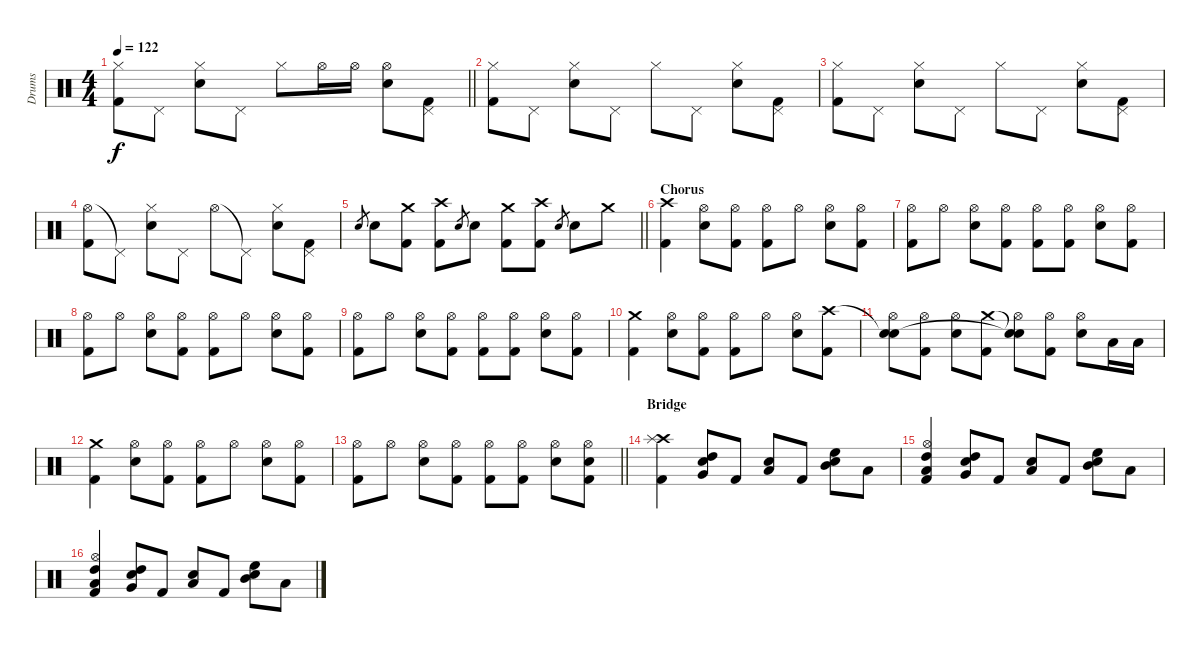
\track ("Drums" "Drums") {instrument percussion}
\staff {score}
\articulation defaults
\ts (4 4)
\tempo 122
\clef neutral
\barLineRight lightlight
\ks c
("Hi-Hat (closed)" "Kick (hit) 2").8{dy f} "Pedal Hi-Hat (hit)".8 ("Snare (hit) 2" "Hi-Hat (closed)").8 "Pedal Hi-Hat (hit)".8 "Hi-Hat (closed)".8 "Hi-Hat (open)".16 "Hi-Hat (open)".16 ("Snare (hit) 2" "Hi-Hat (open)").8 ("Pedal Hi-Hat (hit)" "Kick (hit) 2").8 |
("Hi-Hat (closed)" "Kick (hit) 2").8 "Pedal Hi-Hat (hit)".8 ("Snare (hit) 2" "Hi-Hat (closed)").8 "Pedal Hi-Hat (hit)".8 "Hi-Hat (closed)".8 "Pedal Hi-Hat (hit)".8 ("Snare (hit) 2" "Hi-Hat (closed)").8 ("Pedal Hi-Hat (hit)" "Kick (hit) 2").8 |
("Hi-Hat (closed)" "Kick (hit) 2").8 "Pedal Hi-Hat (hit)".8 ("Snare (hit) 2" "Hi-Hat (closed)").8 "Pedal Hi-Hat (hit)".8 "Hi-Hat (closed)".8 "Pedal Hi-Hat (hit)".8 ("Snare (hit) 2" "Hi-Hat (closed)").8 ("Pedal Hi-Hat (hit)" "Kick (hit) 2").8 |
("Hi-Hat (open)" "Kick (hit) 2").8 "Pedal Hi-Hat (hit)"{t}.8 ("Snare (hit) 2" "Hi-Hat (closed)").8 "Pedal Hi-Hat (hit)".8 "Hi-Hat (open)".8 "Pedal Hi-Hat (hit)"{t}.8 ("Snare (hit) 2" "Hi-Hat (closed)").8 ("Pedal Hi-Hat (hit)" "Kick (hit) 2").8 |
\barLineRight lightlight "Snare (hit) 2".8{gr} "Snare (hit) 2".8
("Crash medium (hit)" "Kick (hit) 2").8 ("Crash high (hit)" "Kick (hit) 2").8 "Snare (hit) 2".8{gr} "Snare (hit) 2".8 ("Crash medium (hit)" "Kick (hit) 2").8 ("Crash high (hit)" "Kick (hit) 2").8 "Snare (hit) 2".8{gr} "Snare (hit) 2".8 "Crash medium (hit)".8 |
\section ("" "Chorus")
("Crash high (hit)" "Kick (hit) 2").4 ("Snare (hit) 2" "Hi-Hat (open)").8 ("Hi-Hat (open)" "Kick (hit) 2").8 ("Hi-Hat (open)" "Kick (hit) 2").8 "Hi-Hat (open)".8 ("Snare (hit) 2" "Hi-Hat (open)").8 ("Hi-Hat (open)" "Kick (hit) 2").8 |
("Hi-Hat (open)" "Kick (hit) 2").8 "Hi-Hat (open)".8 ("Snare (hit) 2" "Hi-Hat (open)").8 ("Hi-Hat (open)" "Kick (hit) 2").8 ("Hi-Hat (open)" "Kick (hit) 2").8 ("Hi-Hat (open)" "Kick (hit) 2").8 ("Snare (hit) 2" "Hi-Hat (open)").8 ("Hi-Hat (open)" "Kick (hit) 2").8 |
("Hi-Hat (open)" "Kick (hit) 2").8 "Hi-Hat (open)".8 ("Snare (hit) 2" "Hi-Hat (open)").8 ("Hi-Hat (open)" "Kick (hit) 2").8 ("Hi-Hat (open)" "Kick (hit) 2").8 "Hi-Hat (open)".8 ("Snare (hit) 2" "Hi-Hat (open)").8 ("Hi-Hat (open)" "Kick (hit) 2").8 |
("Hi-Hat (open)" "Kick (hit) 2").8 "Hi-Hat (open)".8 ("Snare (hit) 2" "Hi-Hat (open)").8 ("Hi-Hat (open)" "Kick (hit) 2").8 ("Hi-Hat (open)" "Kick (hit) 2").8 ("Hi-Hat (open)" "Kick (hit) 2").8 ("Snare (hit) 2" "Hi-Hat (open)").8 ("Hi-Hat (open)" "Kick (hit) 2").8 |
("Crash medium (hit)" "Kick (hit) 2").4 ("Snare (hit) 2" "Hi-Hat (open)").8 ("Hi-Hat (open)" "Kick (hit) 2").8 ("Hi-Hat (open)" "Kick (hit) 2").8 "Hi-Hat (open)".8 ("Snare (hit) 2" "Hi-Hat (open)").8 ("Crash high (hit)" "Kick (hit) 2").8 |
("Snare (hit)"{t} "Hi-Hat (open)" "Snare (hit)").8 ("Hi-Hat (open)" "Kick (hit) 2").8 ("Snare (hit) 2" "Hi-Hat (open)").8 ("Crash medium (hit)" "Kick (hit) 2").8 ("Snare (hit)"{t} "Hi-Hat (open)" "Snare (hit)"{t}).8 ("Hi-Hat (open)" "Kick (hit) 2").8 ("Snare (hit) 2" "Hi-Hat (open)").8 "Low Tom (hit)".16 "Low Tom (hit)".16 |
("Crash medium (hit)" "Kick (hit) 2").4 ("Snare (hit) 2" "Hi-Hat (open)").8 ("Hi-Hat (open)" "Kick (hit) 2").8 ("Hi-Hat (open)" "Kick (hit) 2").8 "Hi-Hat (open)".8 ("Snare (hit) 2" "Hi-Hat (open)").8 ("Hi-Hat (open)" "Kick (hit) 2").8 |
\barLineRight lightlight
("Hi-Hat (open)" "Kick (hit) 2").8 "Hi-Hat (open)".8 ("Snare (hit) 2" "Hi-Hat (open)").8 ("Hi-Hat (open)" "Kick (hit) 2").8 ("Hi-Hat (open)" "Kick (hit) 2").8 ("Hi-Hat (open)" "Kick (hit) 2").8 ("Snare (hit) 2" "Hi-Hat (open)").8 ("Snare (hit) 2" "Hi-Hat (open)" "Kick (hit) 2").8 |
\section ("" "Bridge")
("Crash high (hit)" "Splash (hit)" "Kick (hit) 2").4 ("Snare (hit) 2" "Very Low Tom (hit)" "High Tom (hit)").8 "Kick (hit) 2".8 ("Snare (hit) 2" "Low Tom (hit)").8 "Kick (hit) 2".8 ("Snare (hit) 2" "Mid Tom (hit)" "High Floor Tom (hit)").8 "Low Floor Tom (hit)".8 |
("Hi-Hat (open)" "High Tom (hit)" "Low Tom (hit)" "Kick (hit) 2").4 ("Snare (hit) 2" "Very Low Tom (hit)" "High Tom (hit)").8 "Kick (hit) 2".8 ("Snare (hit) 2" "Low Tom (hit)").8 "Kick (hit) 2".8 ("Snare (hit) 2" "Mid Tom (hit)" "High Floor Tom (hit)").8 "Low Floor Tom (hit)".8 |
("Hi-Hat (open)" "High Tom (hit)" "Low Tom (hit)" "Kick (hit) 2").4 ("Snare (hit) 2" "Very Low Tom (hit)" "High Tom (hit)").8 "Kick (hit) 2".8 ("Snare (hit) 2" "Low Tom (hit)").8 "Kick (hit) 2".8 ("Snare (hit) 2" "Mid Tom (hit)" "High Floor Tom (hit)").8 "Low Floor Tom (hit)".8
